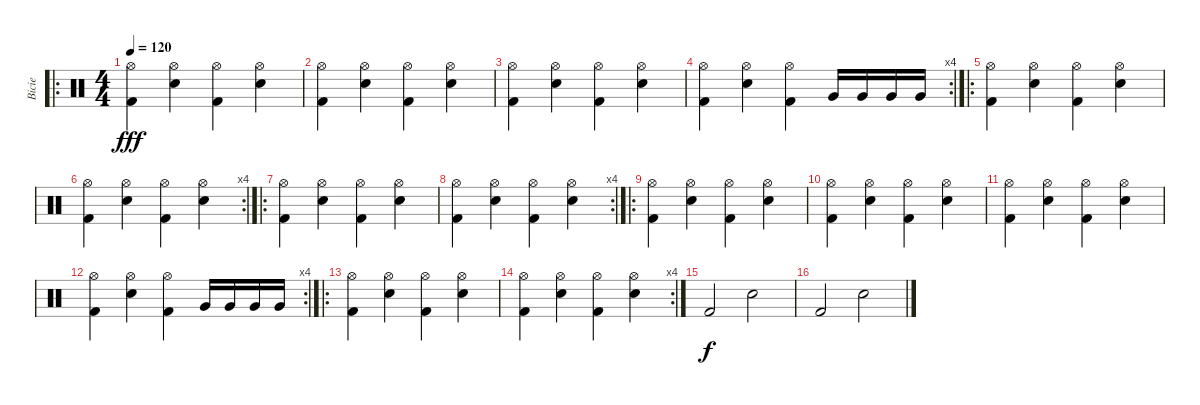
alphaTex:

\track ("Bicie" "Bicie") {instrument percussion}
\staff {score}
\articulation defaults
\ro
\ts (4 4)
\tempo 120
\clef neutral
\ks c
("Hi-Hat (open)" "Kick (hit) 2").4{dy fff} ("Hi-Hat (open)" "Snare (hit) 2").4 ("Hi-Hat (open)" "Kick (hit) 2").4 ("Hi-Hat (open)" "Snare (hit) 2").4 |
("Hi-Hat (open)" "Kick (hit) 2").4 ("Hi-Hat (open)" "Snare (hit) 2").4 ("Hi-Hat (open)" "Kick (hit) 2").4 ("Hi-Hat (open)" "Snare (hit) 2").4 |
("Hi-Hat (open)" "Kick (hit) 2").4 ("Hi-Hat (open)" "Snare (hit) 2").4 ("Hi-Hat (open)" "Kick (hit) 2").4 ("Hi-Hat (open)" "Snare (hit) 2").4 |
\rc 4
("Hi-Hat (open)" "Kick (hit) 2").4 ("Hi-Hat (open)" "Snare (hit) 2").4 ("Hi-Hat (open)" "Kick (hit) 2").4 "Very Low Tom (hit)".16 "Very Low Tom (hit)".16 "Very Low Tom (hit)".16 "Very Low Tom (hit)".16 |
\ro
("Hi-Hat (open)" "Kick (hit) 2").4 ("Hi-Hat (open)" "Snare (hit) 2").4 ("Hi-Hat (open)" "Kick (hit) 2").4 ("Hi-Hat (open)" "Snare (hit) 2").4 |
\rc 4
("Hi-Hat (open)" "Kick (hit) 2").4 ("Hi-Hat (open)" "Snare (hit) 2").4 ("Hi-Hat (open)" "Kick (hit) 2").4 ("Hi-Hat (open)" "Snare (hit) 2").4 |
\ro
("Hi-Hat (open)" "Kick (hit) 2").4 ("Hi-Hat (open)" "Snare (hit) 2").4 ("Hi-Hat (open)" "Kick (hit) 2").4 ("Hi-Hat (open)" "Snare (hit) 2").4 |
\rc 4
("Hi-Hat (open)" "Kick (hit) 2").4 ("Hi-Hat (open)" "Snare (hit) 2").4 ("Hi-Hat (open)" "Kick (hit) 2").4 ("Hi-Hat (open)" "Snare (hit) 2").4 |
\ro
("Hi-Hat (open)" "Kick (hit) 2").4 ("Hi-Hat (open)" "Snare (hit) 2").4 ("Hi-Hat (open)" "Kick (hit) 2").4 ("Hi-Hat (open)" "Snare (hit) 2").4 |
("Hi-Hat (open)" "Kick (hit) 2").4 ("Hi-Hat (open)" "Snare (hit) 2").4 ("Hi-Hat (open)" "Kick (hit) 2").4 ("Hi-Hat (open)" "Snare (hit) 2").4 |
("Hi-Hat (open)" "Kick (hit) 2").4 ("Hi-Hat (open)" "Snare (hit) 2").4 ("Hi-Hat (open)" "Kick (hit) 2").4 ("Hi-Hat (open)" "Snare (hit) 2").4 |
\rc 4
("Hi-Hat (open)" "Kick (hit) 2").4 ("Hi-Hat (open)" "Snare (hit) 2").4 ("Hi-Hat (open)" "Kick (hit) 2").4 "Very Low Tom (hit)".16 "Very Low Tom (hit)".16 "Very Low Tom (hit)".16 "Very Low Tom (hit)".16 |
\ro
("Hi-Hat (open)" "Kick (hit) 2").4 ("Hi-Hat (open)" "Snare (hit) 2").4 ("Hi-Hat (open)" "Kick (hit) 2").4 ("Hi-Hat (open)" "Snare (hit) 2").4 |
\rc 4
("Hi-Hat (open)" "Kick (hit) 2").4 ("Hi-Hat (open)" "Snare (hit) 2").4 ("Hi-Hat (open)" "Kick (hit) 2").4 ("Hi-Hat (open)" "Snare (hit) 2").4 |
"Kick (hit) 2".2{dy f} "Electric Snare (hit)".2 |
"Kick (hit) 2".2 "Electric Snare (hit)".2
